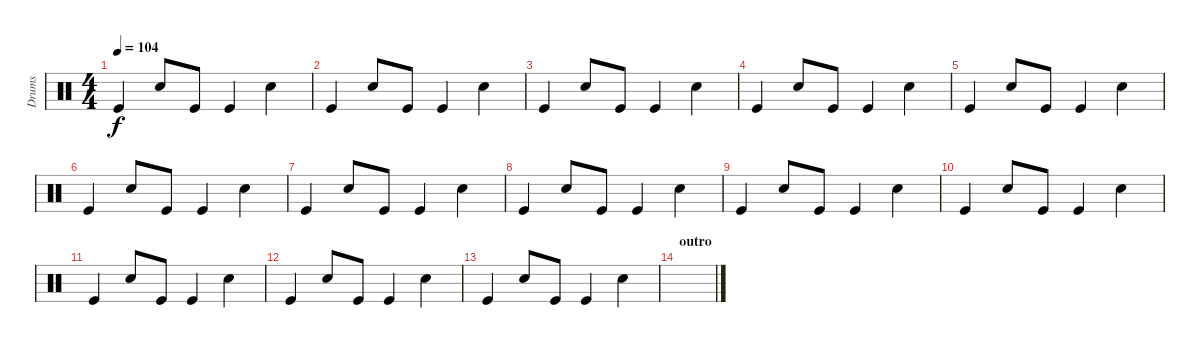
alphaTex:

\track ("Drums" "Drums") {instrument percussion}
\staff {score}
\articulation defaults
\ts (4 4)
\tempo 104
\clef neutral
\ks c "Kick (hit)".4{dy f} "Snare (hit) 2".8 "Kick (hit)".8 "Kick (hit)".4 "Snare (hit) 2".4
|
"Kick (hit)".4 "Snare (hit) 2".8 "Kick (hit)".8 "Kick (hit)".4 "Snare (hit) 2".4 |
"Kick (hit)".4 "Snare (hit) 2".8 "Kick (hit)".8 "Kick (hit)".4 "Snare (hit) 2".4 |
"Kick (hit)".4 "Snare (hit) 2".8 "Kick (hit)".8 "Kick (hit)".4 "Snare (hit) 2".4 |
"Kick (hit)".4 "Snare (hit) 2".8 "Kick (hit)".8 "Kick (hit)".4 "Snare (hit) 2".4 |
"Kick (hit)".4 "Snare (hit) 2".8 "Kick (hit)".8 "Kick (hit)".4 "Snare (hit) 2".4 |
"Kick (hit)".4 "Snare (hit) 2".8 "Kick (hit)".8 "Kick (hit)".4 "Snare (hit) 2".4 |
"Kick (hit)".4 "Snare (hit) 2".8 "Kick (hit)".8 "Kick (hit)".4 "Snare (hit) 2".4 |
"Kick (hit)".4 "Snare (hit) 2".8 "Kick (hit)".8 "Kick (hit)".4 "Snare (hit) 2".4 |
"Kick (hit)".4 "Snare (hit) 2".8 "Kick (hit)".8 "Kick (hit)".4 "Snare (hit) 2".4 |
"Kick (hit)".4 "Snare (hit) 2".8 "Kick (hit)".8 "Kick (hit)".4 "Snare (hit) 2".4 |
"Kick (hit)".4 "Snare (hit) 2".8 "Kick (hit)".8 "Kick (hit)".4 "Snare (hit) 2".4 |
"Kick (hit)".4 "Snare (hit) 2".8 "Kick (hit)".8 "Kick (hit)".4 "Snare (hit) 2".4 |
\section ("" "outro")
